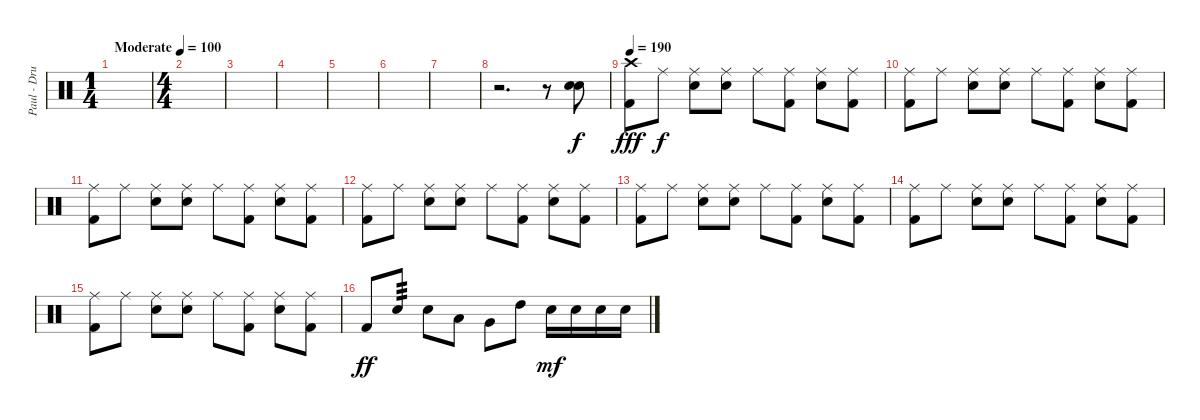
\track ("Paul - Drums" "Paul - Dru") {instrument percussion}
\staff {score}
\articulation defaults
\ts (1 4)
\tempo (100 "Moderate")
\clef neutral
\ks c
|
\ts (4 4)
|
|
|
|
|
|
r.2{d} r.8 ("Snare (hit) 2" "Electric Snare (hit)").8 |
\tempo 190
("Crash high (hit)" "Kick (hit) 2").8{dy fff} "Ride (middle)".8{dy f} ("Ride (middle)" "Electric Snare (hit)").8 ("Ride (middle)" "Electric Snare (hit)").8 "Ride (middle)".8 ("Ride (middle)" "Kick (hit) 2").8 ("Ride (middle)" "Electric Snare (hit)").8 ("Ride (middle)" "Kick (hit) 2").8 |
("Ride (middle)" "Kick (hit) 2").8 "Ride (middle)".8 ("Ride (middle)" "Electric Snare (hit)").8 ("Ride (middle)" "Electric Snare (hit)").8 "Ride (middle)".8 ("Ride (middle)" "Kick (hit) 2").8 ("Ride (middle)" "Electric Snare (hit)").8 ("Ride (middle)" "Kick (hit) 2").8 |
("Ride (middle)" "Kick (hit) 2").8 "Ride (middle)".8 ("Ride (middle)" "Electric Snare (hit)").8 ("Ride (middle)" "Electric Snare (hit)").8 "Ride (middle)".8 ("Ride (middle)" "Kick (hit) 2").8 ("Ride (middle)" "Electric Snare (hit)").8 ("Ride (middle)" "Kick (hit) 2").8 |
("Ride (middle)" "Kick (hit) 2").8 "Ride (middle)".8 ("Ride (middle)" "Electric Snare (hit)").8 ("Ride (middle)" "Electric Snare (hit)").8 "Ride (middle)".8 ("Ride (middle)" "Kick (hit) 2").8 ("Ride (middle)" "Electric Snare (hit)").8 ("Ride (middle)" "Kick (hit) 2").8 |
("Ride (middle)" "Kick (hit) 2").8 "Ride (middle)".8 ("Ride (middle)" "Electric Snare (hit)").8 ("Ride (middle)" "Electric Snare (hit)").8 "Ride (middle)".8 ("Ride (middle)" "Kick (hit) 2").8 ("Ride (middle)" "Electric Snare (hit)").8 ("Ride (middle)" "Kick (hit) 2").8 |
("Ride (middle)" "Kick (hit) 2").8 "Ride (middle)".8 ("Ride (middle)" "Electric Snare (hit)").8 ("Ride (middle)" "Electric Snare (hit)").8 "Ride (middle)".8 ("Ride (middle)" "Kick (hit) 2").8 ("Ride (middle)" "Electric Snare (hit)").8 ("Ride (middle)" "Kick (hit) 2").8 |
("Ride (middle)" "Kick (hit) 2").8 "Ride (middle)".8 ("Ride (middle)" "Electric Snare (hit)").8 ("Ride (middle)" "Electric Snare (hit)").8 "Ride (middle)".8 ("Ride (middle)" "Kick (hit) 2").8 ("Ride (middle)" "Electric Snare (hit)").8 ("Ride (middle)" "Kick (hit) 2").8 |
"Kick (hit) 2".8{dy ff} "Electric Snare (hit)".8{tp 3} "Electric Snare (hit)".8 "Low Tom (hit)".8 "Very Low Tom (hit)".8 "High Tom (hit)".8 "Electric Snare (hit)".16{dy mf} "Electric Snare (hit)".16 "Electric Snare (hit)".16 "Electric Snare (hit)".16
